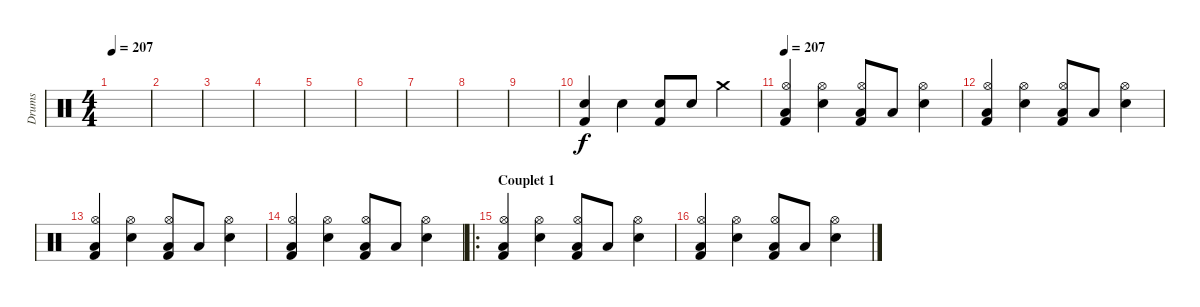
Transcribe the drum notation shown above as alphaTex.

\track ("Drums" "Drums") {instrument percussion}
\staff {score}
\articulation defaults
\ts (4 4)
\tempo 207
\tempo 130
\tempo 207
\clef neutral
\ks c
|
|
|
|
|
|
|
|
|
("Snare (hit) 2" "Kick (hit) 2").4 "Snare (hit) 2".4 ("Snare (hit) 2" "Kick (hit) 2").8 "Snare (hit) 2".8 "Crash medium (hit)".4 |
\tempo 207
("Hi-Hat (open)" "Low Floor Tom (hit)" "Kick (hit) 2").4 ("Hi-Hat (open)" "Snare (hit) 2").4 ("Hi-Hat (open)" "Low Floor Tom (hit)" "Kick (hit) 2").8 "Low Floor Tom (hit)".8 ("Hi-Hat (open)" "Snare (hit) 2").4 |
("Hi-Hat (open)" "Low Floor Tom (hit)" "Kick (hit) 2").4 ("Hi-Hat (open)" "Snare (hit) 2").4 ("Hi-Hat (open)" "Low Floor Tom (hit)" "Kick (hit) 2").8 "Low Floor Tom (hit)".8 ("Hi-Hat (open)" "Snare (hit) 2").4 |
("Hi-Hat (open)" "Low Floor Tom (hit)" "Kick (hit) 2").4 ("Hi-Hat (open)" "Snare (hit) 2").4 ("Hi-Hat (open)" "Low Floor Tom (hit)" "Kick (hit) 2").8 "Low Floor Tom (hit)".8 ("Hi-Hat (open)" "Snare (hit) 2").4 |
("Hi-Hat (open)" "Low Floor Tom (hit)" "Kick (hit) 2").4 ("Hi-Hat (open)" "Snare (hit) 2").4 ("Hi-Hat (open)" "Low Floor Tom (hit)" "Kick (hit) 2").8 "Low Floor Tom (hit)".8 ("Hi-Hat (open)" "Snare (hit) 2").4 |
\ro
\section ("" "Couplet 1")
("Hi-Hat (open)" "Low Floor Tom (hit)" "Kick (hit) 2").4 ("Hi-Hat (open)" "Snare (hit) 2").4 ("Hi-Hat (open)" "Low Floor Tom (hit)" "Kick (hit) 2").8 "Low Floor Tom (hit)".8 ("Hi-Hat (open)" "Snare (hit) 2").4 |
("Hi-Hat (open)" "Low Floor Tom (hit)" "Kick (hit) 2").4 ("Hi-Hat (open)" "Snare (hit) 2").4 ("Hi-Hat (open)" "Low Floor Tom (hit)" "Kick (hit) 2").8 "Low Floor Tom (hit)".8 ("Hi-Hat (open)" "Snare (hit) 2").4
